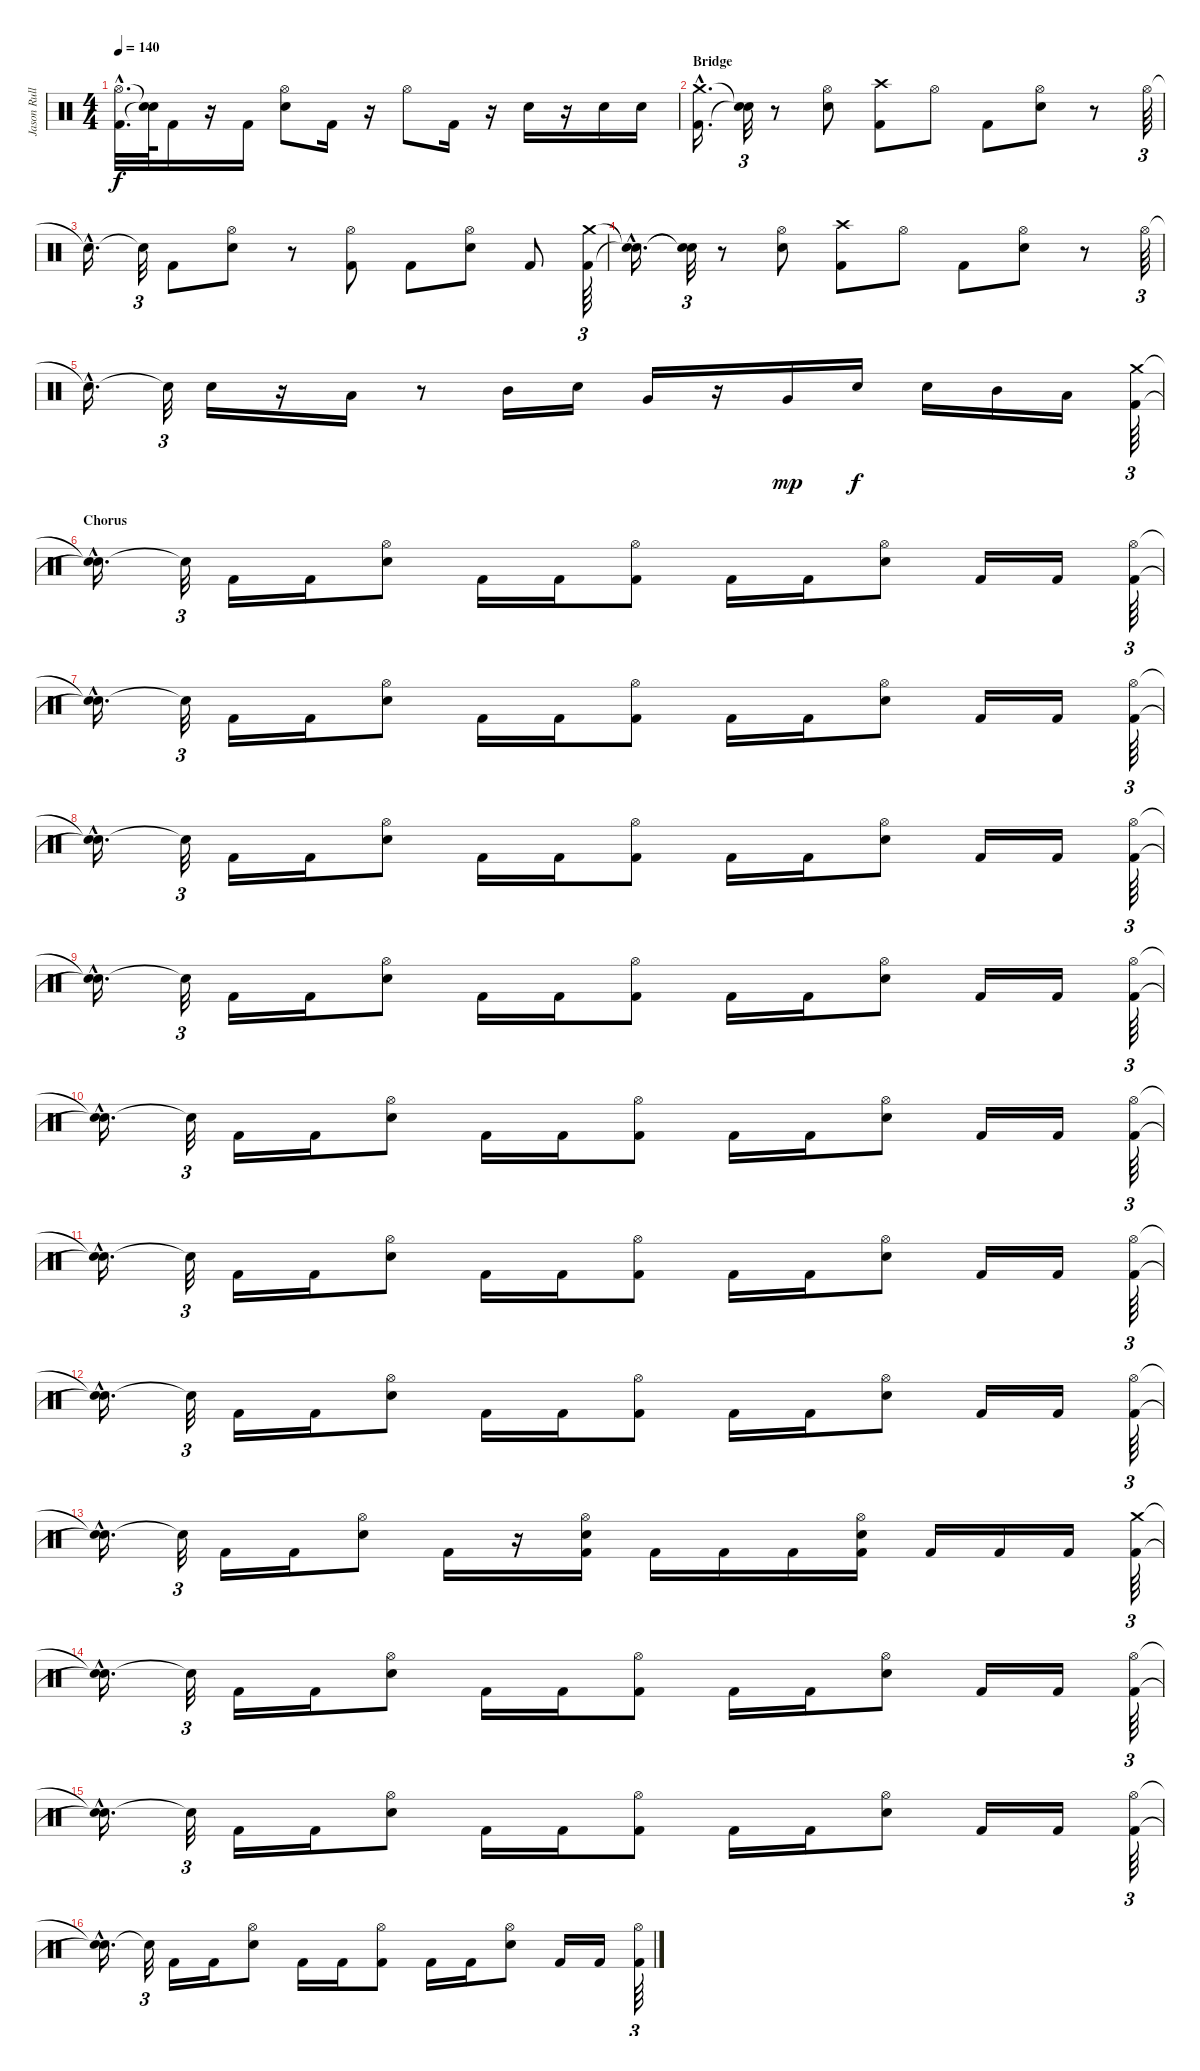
\track ("Jason Rullo" "Jason Rull") {instrument percussion}
\staff {score}
\articulation defaults
\ts (4 4)
\tempo 140
\clef neutral
\ks c
("Hi-Hat (open)"{hac} "Kick (hit) 2"{hac}).32{d dy f} ("Snare (hit)"{t} "Snare (hit)"{t}).64 "Kick (hit) 2".16 r.16 "Kick (hit) 2".16 ("Hi-Hat (open)" "Electric Snare (hit)").8 "Kick (hit) 2".16 r.16 "Hi-Hat (open)".8 "Kick (hit) 2".16 r.16 "Electric Snare (hit)".16 r.16 "Electric Snare (hit)".16 "Electric Snare (hit)".16 |
\section ("" "Bridge")
("Crash medium (hit)"{hac} "Kick (hit) 2"{hac}).16{d} ("Snare (hit)"{t} "Snare (hit)"{t}).32{tu (3 2)} r.8 ("Electric Snare (hit)" "Hi-Hat (open)").8 ("Kick (hit) 2" "Crash high (hit)").8 "Hi-Hat (open)".8 "Kick (hit) 2".8 ("Hi-Hat (open)" "Electric Snare (hit)").8 r.8 "Hi-Hat (open)".64{tu (3 2)} |
"Snare (hit)"{hac t}.16{d} "Snare (hit)"{t}.32{tu (3 2)} "Kick (hit) 2".8 ("Hi-Hat (open)" "Electric Snare (hit)").8 r.8 ("Hi-Hat (open)" "Kick (hit) 2").8 "Kick (hit) 2".8 ("Hi-Hat (open)" "Electric Snare (hit)").8 "Kick (hit) 2".8 ("Kick (hit) 2" "Crash medium (hit)").64{tu (3 2)} |
("Snare (hit)"{hac t} "Snare (hit)"{hac t}).16{d} ("Snare (hit)"{t} "Snare (hit)"{t}).32{tu (3 2)} r.8 ("Electric Snare (hit)" "Hi-Hat (open)").8 ("Kick (hit) 2" "Crash high (hit)").8 "Hi-Hat (open)".8 "Kick (hit) 2".8 ("Hi-Hat (open)" "Electric Snare (hit)").8 r.8 "Hi-Hat (open)".64{tu (3 2)} |
"Snare (hit)"{hac t}.16{d} "Snare (hit)"{t}.32{tu (3 2)} "Electric Snare (hit)".16 r.16 "Low Tom (hit)".16 r.8 "Mid Tom (hit)".16 "Electric Snare (hit)".16 "Very Low Tom (hit)".16 r.16 "Very Low Tom (hit)".16{dy mp} "Electric Snare (hit)".16{dy f} "Electric Snare (hit)".16 "Mid Tom (hit)".16 "Low Tom (hit)".16 ("Crash medium (hit)" "Kick (hit) 2").64{tu (3 2)} |
\section ("" "Chorus")
("Snare (hit)"{hac t} "Snare (hit)"{hac t}).16{d} "Snare (hit)"{t}.32{tu (3 2)} "Kick (hit) 2".16 "Kick (hit) 2".16 ("Hi-Hat (open)" "Electric Snare (hit)").8 "Kick (hit) 2".16 "Kick (hit) 2".16 ("Hi-Hat (open)" "Kick (hit) 2").8 "Kick (hit) 2".16 "Kick (hit) 2".16 ("Hi-Hat (open)" "Electric Snare (hit)").8 "Kick (hit) 2".16 "Kick (hit) 2".16 ("Hi-Hat (open)" "Kick (hit) 2").64{tu (3 2)} |
("Snare (hit)"{hac t} "Snare (hit)"{hac t}).16{d} "Snare (hit)"{t}.32{tu (3 2)} "Kick (hit) 2".16 "Kick (hit) 2".16 ("Hi-Hat (open)" "Electric Snare (hit)").8 "Kick (hit) 2".16 "Kick (hit) 2".16 ("Hi-Hat (open)" "Kick (hit) 2").8 "Kick (hit) 2".16 "Kick (hit) 2".16 ("Hi-Hat (open)" "Electric Snare (hit)").8 "Kick (hit) 2".16 "Kick (hit) 2".16 ("Hi-Hat (open)" "Kick (hit) 2").64{tu (3 2)} |
("Snare (hit)"{hac t} "Snare (hit)"{hac t}).16{d} "Snare (hit)"{t}.32{tu (3 2)} "Kick (hit) 2".16 "Kick (hit) 2".16 ("Hi-Hat (open)" "Electric Snare (hit)").8 "Kick (hit) 2".16 "Kick (hit) 2".16 ("Hi-Hat (open)" "Kick (hit) 2").8 "Kick (hit) 2".16 "Kick (hit) 2".16 ("Hi-Hat (open)" "Electric Snare (hit)").8 "Kick (hit) 2".16 "Kick (hit) 2".16 ("Hi-Hat (open)" "Kick (hit) 2").64{tu (3 2)} |
("Snare (hit)"{hac t} "Snare (hit)"{hac t}).16{d} "Snare (hit)"{t}.32{tu (3 2)} "Kick (hit) 2".16 "Kick (hit) 2".16 ("Hi-Hat (open)" "Electric Snare (hit)").8 "Kick (hit) 2".16 "Kick (hit) 2".16 ("Hi-Hat (open)" "Kick (hit) 2").8 "Kick (hit) 2".16 "Kick (hit) 2".16 ("Hi-Hat (open)" "Electric Snare (hit)").8 "Kick (hit) 2".16 "Kick (hit) 2".16 ("Hi-Hat (open)" "Kick (hit) 2").64{tu (3 2)} |
("Snare (hit)"{hac t} "Snare (hit)"{hac t}).16{d} "Snare (hit)"{t}.32{tu (3 2)} "Kick (hit) 2".16 "Kick (hit) 2".16 ("Hi-Hat (open)" "Electric Snare (hit)").8 "Kick (hit) 2".16 "Kick (hit) 2".16 ("Hi-Hat (open)" "Kick (hit) 2").8 "Kick (hit) 2".16 "Kick (hit) 2".16 ("Hi-Hat (open)" "Electric Snare (hit)").8 "Kick (hit) 2".16 "Kick (hit) 2".16 ("Hi-Hat (open)" "Kick (hit) 2").64{tu (3 2)} |
("Snare (hit)"{hac t} "Snare (hit)"{hac t}).16{d} "Snare (hit)"{t}.32{tu (3 2)} "Kick (hit) 2".16 "Kick (hit) 2".16 ("Hi-Hat (open)" "Electric Snare (hit)").8 "Kick (hit) 2".16 "Kick (hit) 2".16 ("Hi-Hat (open)" "Kick (hit) 2").8 "Kick (hit) 2".16 "Kick (hit) 2".16 ("Hi-Hat (open)" "Electric Snare (hit)").8 "Kick (hit) 2".16 "Kick (hit) 2".16 ("Hi-Hat (open)" "Kick (hit) 2").64{tu (3 2)} |
("Snare (hit)"{hac t} "Snare (hit)"{hac t}).16{d} "Snare (hit)"{t}.32{tu (3 2)} "Kick (hit) 2".16 "Kick (hit) 2".16 ("Hi-Hat (open)" "Electric Snare (hit)").8 "Kick (hit) 2".16 "Kick (hit) 2".16 ("Hi-Hat (open)" "Kick (hit) 2").8 "Kick (hit) 2".16 "Kick (hit) 2".16 ("Hi-Hat (open)" "Electric Snare (hit)").8 "Kick (hit) 2".16 "Kick (hit) 2".16 ("Hi-Hat (open)" "Kick (hit) 2").64{tu (3 2)} |
("Snare (hit)"{hac t} "Snare (hit)"{hac t}).16{d} "Snare (hit)"{t}.32{tu (3 2)} "Kick (hit) 2".16 "Kick (hit) 2".16 ("Hi-Hat (open)" "Electric Snare (hit)").8 "Kick (hit) 2".16 r.16 ("Electric Snare (hit)" "Hi-Hat (open)" "Kick (hit) 2").16 "Kick (hit) 2".16 "Kick (hit) 2".16 "Kick (hit) 2".16 ("Hi-Hat (open)" "Kick (hit) 2" "Electric Snare (hit)").16 "Kick (hit) 2".16 "Kick (hit) 2".16 "Kick (hit) 2".16 ("Crash medium (hit)" "Kick (hit) 2").64{tu (3 2)} |
("Snare (hit)"{hac t} "Snare (hit)"{hac t}).16{d} "Snare (hit)"{t}.32{tu (3 2)} "Kick (hit) 2".16 "Kick (hit) 2".16 ("Hi-Hat (open)" "Electric Snare (hit)").8 "Kick (hit) 2".16 "Kick (hit) 2".16 ("Hi-Hat (open)" "Kick (hit) 2").8 "Kick (hit) 2".16 "Kick (hit) 2".16 ("Hi-Hat (open)" "Electric Snare (hit)").8 "Kick (hit) 2".16 "Kick (hit) 2".16 ("Hi-Hat (open)" "Kick (hit) 2").64{tu (3 2)} |
("Snare (hit)"{hac t} "Snare (hit)"{hac t}).16{d} "Snare (hit)"{t}.32{tu (3 2)} "Kick (hit) 2".16 "Kick (hit) 2".16 ("Hi-Hat (open)" "Electric Snare (hit)").8 "Kick (hit) 2".16 "Kick (hit) 2".16 ("Hi-Hat (open)" "Kick (hit) 2").8 "Kick (hit) 2".16 "Kick (hit) 2".16 ("Hi-Hat (open)" "Electric Snare (hit)").8 "Kick (hit) 2".16 "Kick (hit) 2".16 ("Hi-Hat (open)" "Kick (hit) 2").64{tu (3 2)} |
("Snare (hit)"{hac t} "Snare (hit)"{hac t}).16{d} "Snare (hit)"{t}.32{tu (3 2)} "Kick (hit) 2".16 "Kick (hit) 2".16 ("Hi-Hat (open)" "Electric Snare (hit)").8 "Kick (hit) 2".16 "Kick (hit) 2".16 ("Hi-Hat (open)" "Kick (hit) 2").8 "Kick (hit) 2".16 "Kick (hit) 2".16 ("Hi-Hat (open)" "Electric Snare (hit)").8 "Kick (hit) 2".16 "Kick (hit) 2".16 ("Hi-Hat (open)" "Kick (hit) 2").64{tu (3 2)}
